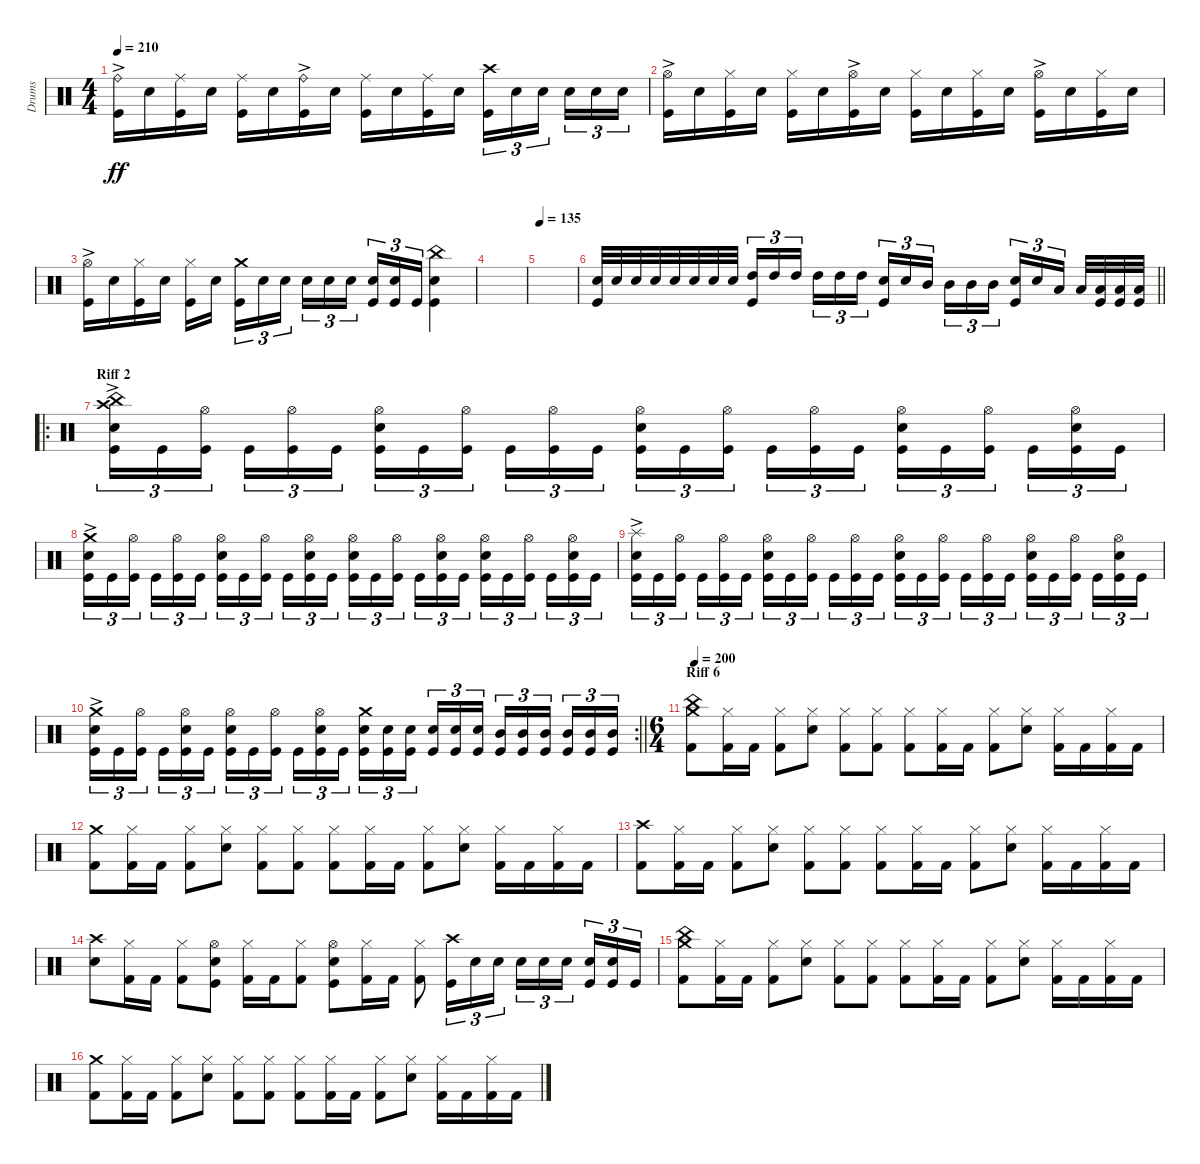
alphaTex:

\track ("Drums" "Drums") {instrument percussion}
\staff {score}
\articulation defaults
\ts (4 4)
\tempo 210
\clef neutral
\ks c
("Ride (bell)"{ac} "Kick (hit)").16{dy ff} "Electric Snare (hit)".16 ("Ride (middle)" "Kick (hit)").16 "Electric Snare (hit)".16 ("Ride (middle)" "Kick (hit)").16 "Electric Snare (hit)".16 ("Ride (bell)"{ac} "Kick (hit)").16 "Electric Snare (hit)".16 ("Ride (middle)" "Kick (hit)").16 "Electric Snare (hit)".16 ("Ride (middle)" "Kick (hit)").16 "Electric Snare (hit)".16 ("Crash high (hit)" "Kick (hit)").16{tu (3 2)} "Electric Snare (hit)".16{tu (3 2)} "Electric Snare (hit)".16{tu (3 2) beam splitsecondary} "Electric Snare (hit)".16{tu (3 2)} "Electric Snare (hit)".16{tu (3 2)} "Electric Snare (hit)".16{tu (3 2)} |
("Hi-Hat (open)"{ac} "Kick (hit)").16 "Electric Snare (hit)".16 ("Hi-Hat (closed)" "Kick (hit)").16 "Electric Snare (hit)".16 ("Hi-Hat (closed)" "Kick (hit)").16 "Electric Snare (hit)".16 ("Hi-Hat (open)"{ac} "Kick (hit)").16 "Electric Snare (hit)".16 ("Hi-Hat (closed)" "Kick (hit)").16 "Electric Snare (hit)".16 ("Hi-Hat (closed)" "Kick (hit)").16 "Electric Snare (hit)".16 ("Hi-Hat (open)"{ac} "Kick (hit)").16 "Electric Snare (hit)".16 ("Hi-Hat (closed)" "Kick (hit)").16 "Electric Snare (hit)".16 |
("Hi-Hat (open)"{ac} "Kick (hit)").16 "Electric Snare (hit)".16 ("Hi-Hat (closed)" "Kick (hit)").16 "Electric Snare (hit)".16 ("Hi-Hat (closed)" "Kick (hit)").16 "Electric Snare (hit)".16{beam splitsecondary} ("Crash medium (hit)" "Kick (hit)").16{tu (3 2)} "Electric Snare (hit)".16{tu (3 2)} "Electric Snare (hit)".16{tu (3 2)} "Electric Snare (hit)".16{tu (3 2)} "Electric Snare (hit)".16{tu (3 2)} "Electric Snare (hit)".16{tu (3 2) beam splitsecondary} ("Electric Snare (hit)" "Kick (hit)").16{tu (3 2)} ("Electric Snare (hit)" "Kick (hit)").16{tu (3 2)} "Kick (hit)".16{tu (3 2)} ("China (hit)" "Electric Snare (hit)" "Kick (hit)").4 |
|
\tempo 135
|
\barLineRight lightlight
("Electric Snare (hit)" "Kick (hit)").32{volume 16} "Electric Snare (hit)".32 "Electric Snare (hit)".32 "Electric Snare (hit)".32 "Electric Snare (hit)".32 "Electric Snare (hit)".32 "Electric Snare (hit)".32 "Electric Snare (hit)".32 ("High Tom (hit)" "Kick (hit)").16{tu (3 2)} "High Tom (hit)".16{tu (3 2)} "High Tom (hit)".16{tu (3 2) beam splitsecondary} "High Tom (hit)".16{tu (3 2)} "High Tom (hit)".16{tu (3 2)} "High Tom (hit)".16{tu (3 2)} ("Electric Snare (hit)" "Kick (hit)").16{tu (3 2)} "Electric Snare (hit)".16{tu (3 2)} "Mid Tom (hit)".16{tu (3 2) beam splitsecondary} "Mid Tom (hit)".16{tu (3 2)} "Mid Tom (hit)".16{tu (3 2)} "Mid Tom (hit)".16{tu (3 2)} ("Electric Snare (hit)" "Kick (hit)").16{tu (3 2)} "Electric Snare (hit)".16{tu (3 2)} "Low Tom (hit)".16{tu (3 2) beam splitsecondary} "Low Tom (hit)".32 ("Low Tom (hit)" "Kick (hit)").32 ("Low Tom (hit)" "Kick (hit)").32 ("Low Tom (hit)" "Kick (hit)").32 |
\ro
\section ("" "Riff 2")
("China (hit)"{ac} "Crash high (hit)" "Electric Snare (hit)" "Kick (hit)").16{tu (3 2) volume 15} "Kick (hit)".16{tu (3 2)} ("Hi-Hat (open)" "Kick (hit)").16{tu (3 2) beam splitsecondary} "Kick (hit)".16{tu (3 2)} ("Hi-Hat (open)" "Kick (hit)").16{tu (3 2)} "Kick (hit)".16{tu (3 2)} ("Hi-Hat (open)" "Electric Snare (hit)" "Kick (hit)").16{tu (3 2)} "Kick (hit)".16{tu (3 2)} ("Hi-Hat (open)" "Kick (hit)").16{tu (3 2) beam splitsecondary} "Kick (hit)".16{tu (3 2)} ("Hi-Hat (open)" "Kick (hit)").16{tu (3 2)} "Kick (hit)".16{tu (3 2)} ("Hi-Hat (open)" "Electric Snare (hit)" "Kick (hit)").16{tu (3 2)} "Kick (hit)".16{tu (3 2)} ("Hi-Hat (open)" "Kick (hit)").16{tu (3 2) beam splitsecondary} "Kick (hit)".16{tu (3 2)} ("Hi-Hat (open)" "Kick (hit)").16{tu (3 2)} "Kick (hit)".16{tu (3 2)} ("Hi-Hat (open)" "Electric Snare (hit)" "Kick (hit)").16{tu (3 2)} "Kick (hit)".16{tu (3 2)} ("Hi-Hat (open)" "Kick (hit)").16{tu (3 2) beam splitsecondary} "Kick (hit)".16{tu (3 2)} ("Hi-Hat (open)" "Electric Snare (hit)" "Kick (hit)").16{tu (3 2)} "Kick (hit)".16{tu (3 2)} |
("Crash medium (hit)"{ac} "Electric Snare (hit)" "Kick (hit)").16{tu (3 2)} "Kick (hit)".16{tu (3 2)} ("Hi-Hat (open)" "Kick (hit)").16{tu (3 2) beam splitsecondary} "Kick (hit)".16{tu (3 2)} ("Hi-Hat (open)" "Kick (hit)").16{tu (3 2)} "Kick (hit)".16{tu (3 2)} ("Hi-Hat (open)" "Electric Snare (hit)" "Kick (hit)").16{tu (3 2)} "Kick (hit)".16{tu (3 2)} ("Hi-Hat (open)" "Kick (hit)").16{tu (3 2) beam splitsecondary} "Kick (hit)".16{tu (3 2)} ("Hi-Hat (open)" "Electric Snare (hit)" "Kick (hit)").16{tu (3 2)} "Kick (hit)".16{tu (3 2)} ("Hi-Hat (open)" "Electric Snare (hit)" "Kick (hit)").16{tu (3 2)} "Kick (hit)".16{tu (3 2)} ("Hi-Hat (open)" "Kick (hit)").16{tu (3 2) beam splitsecondary} "Kick (hit)".16{tu (3 2)} ("Hi-Hat (open)" "Electric Snare (hit)" "Kick (hit)").16{tu (3 2)} "Kick (hit)".16{tu (3 2)} ("Hi-Hat (open)" "Electric Snare (hit)" "Kick (hit)").16{tu (3 2)} "Kick (hit)".16{tu (3 2)} ("Hi-Hat (open)" "Kick (hit)").16{tu (3 2) beam splitsecondary} "Kick (hit)".16{tu (3 2)} ("Hi-Hat (open)" "Electric Snare (hit)" "Kick (hit)").16{tu (3 2)} "Kick (hit)".16{tu (3 2)} |
("Splash (hit)"{ac} "Electric Snare (hit)" "Kick (hit)").16{tu (3 2)} "Kick (hit)".16{tu (3 2)} ("Hi-Hat (open)" "Kick (hit)").16{tu (3 2) beam splitsecondary} "Kick (hit)".16{tu (3 2)} ("Hi-Hat (open)" "Kick (hit)").16{tu (3 2)} "Kick (hit)".16{tu (3 2)} ("Hi-Hat (open)" "Electric Snare (hit)" "Kick (hit)").16{tu (3 2)} "Kick (hit)".16{tu (3 2)} ("Hi-Hat (open)" "Kick (hit)").16{tu (3 2) beam splitsecondary} "Kick (hit)".16{tu (3 2)} ("Hi-Hat (open)" "Kick (hit)").16{tu (3 2)} "Kick (hit)".16{tu (3 2)} ("Hi-Hat (open)" "Electric Snare (hit)" "Kick (hit)").16{tu (3 2)} "Kick (hit)".16{tu (3 2)} ("Hi-Hat (open)" "Kick (hit)").16{tu (3 2) beam splitsecondary} "Kick (hit)".16{tu (3 2)} ("Hi-Hat (open)" "Kick (hit)").16{tu (3 2)} "Kick (hit)".16{tu (3 2)} ("Hi-Hat (open)" "Electric Snare (hit)" "Kick (hit)").16{tu (3 2)} "Kick (hit)".16{tu (3 2)} ("Hi-Hat (open)" "Kick (hit)").16{tu (3 2) beam splitsecondary} "Kick (hit)".16{tu (3 2)} ("Hi-Hat (open)" "Electric Snare (hit)" "Kick (hit)").16{tu (3 2)} "Kick (hit)".16{tu (3 2)} |
\rc 2
\barLineRight lightlight
("Crash medium (hit)"{ac} "Electric Snare (hit)" "Kick (hit)").16{tu (3 2)} "Kick (hit)".16{tu (3 2)} ("Hi-Hat (open)" "Kick (hit)").16{tu (3 2) beam splitsecondary} "Kick (hit)".16{tu (3 2)} ("Hi-Hat (open)" "Electric Snare (hit)" "Kick (hit)").16{tu (3 2)} "Kick (hit)".16{tu (3 2)} ("Hi-Hat (open)" "Electric Snare (hit)" "Kick (hit)").16{tu (3 2)} "Kick (hit)".16{tu (3 2)} ("Hi-Hat (open)" "Kick (hit)").16{tu (3 2) beam splitsecondary} "Kick (hit)".16{tu (3 2)} ("Hi-Hat (open)" "Electric Snare (hit)" "Kick (hit)").16{tu (3 2)} "Kick (hit)".16{tu (3 2)} ("Crash medium (hit)" "Electric Snare (hit)" "Kick (hit)").16{tu (3 2)} ("Electric Snare (hit)" "Kick (hit)").16{tu (3 2)} ("Electric Snare (hit)" "Kick (hit)").16{tu (3 2) beam splitsecondary} ("Electric Snare (hit)" "Kick (hit)").16{tu (3 2)} ("Electric Snare (hit)" "Kick (hit)").16{tu (3 2)} ("Electric Snare (hit)" "Kick (hit)").16{tu (3 2)} ("Mid Tom (hit)" "Kick (hit)").16{tu (3 2)} ("Mid Tom (hit)" "Kick (hit)").16{tu (3 2)} ("Mid Tom (hit)" "Kick (hit)").16{tu (3 2) beam splitsecondary} ("Mid Tom (hit)" "Kick (hit)").16{tu (3 2)} ("Mid Tom (hit)" "Kick (hit)").16{tu (3 2)} ("Mid Tom (hit)" "Kick (hit)").16{tu (3 2)} |
\ts (6 4)
\section ("" "Riff 6")
\tempo 200
("China (hit)" "Crash medium (hit)" "Kick (hit) 2").8 ("Hi-Hat (closed)" "Kick (hit) 2").16 "Kick (hit) 2".16 ("Hi-Hat (closed)" "Kick (hit) 2").8 ("Hi-Hat (closed)" "Electric Snare (hit)").8 ("Hi-Hat (closed)" "Kick (hit) 2").8 ("Hi-Hat (closed)" "Kick (hit) 2").8 ("Hi-Hat (closed)" "Kick (hit) 2").8 ("Hi-Hat (closed)" "Kick (hit) 2").16 "Kick (hit) 2".16 ("Hi-Hat (closed)" "Kick (hit) 2").8 ("Hi-Hat (closed)" "Electric Snare (hit)").8 ("Hi-Hat (closed)" "Kick (hit) 2").16 "Kick (hit) 2".16 ("Hi-Hat (closed)" "Kick (hit) 2").16 "Kick (hit) 2".16 |
("Crash medium (hit)" "Kick (hit) 2").8 ("Hi-Hat (closed)" "Kick (hit) 2").16 "Kick (hit) 2".16 ("Hi-Hat (closed)" "Kick (hit) 2").8 ("Hi-Hat (closed)" "Electric Snare (hit)").8 ("Hi-Hat (closed)" "Kick (hit) 2").8 ("Hi-Hat (closed)" "Kick (hit) 2").8 ("Hi-Hat (closed)" "Kick (hit) 2").8 ("Hi-Hat (closed)" "Kick (hit) 2").16 "Kick (hit) 2".16 ("Hi-Hat (closed)" "Kick (hit) 2").8 ("Hi-Hat (closed)" "Electric Snare (hit)").8 ("Hi-Hat (closed)" "Kick (hit) 2").16 "Kick (hit) 2".16 ("Hi-Hat (closed)" "Kick (hit) 2").16 "Kick (hit) 2".16 |
("Crash high (hit)" "Kick (hit) 2").8 ("Hi-Hat (closed)" "Kick (hit) 2").16 "Kick (hit) 2".16 ("Hi-Hat (closed)" "Kick (hit) 2").8 ("Hi-Hat (closed)" "Electric Snare (hit)").8 ("Hi-Hat (closed)" "Kick (hit) 2").8 ("Hi-Hat (closed)" "Kick (hit) 2").8 ("Hi-Hat (closed)" "Kick (hit) 2").8 ("Hi-Hat (closed)" "Kick (hit) 2").16 "Kick (hit) 2".16 ("Hi-Hat (closed)" "Kick (hit) 2").8 ("Hi-Hat (closed)" "Electric Snare (hit)").8 ("Hi-Hat (closed)" "Kick (hit) 2").16 "Kick (hit) 2".16 ("Hi-Hat (closed)" "Kick (hit) 2").16 "Kick (hit) 2".16 |
("Crash high (hit)" "Electric Snare (hit)").8 ("Hi-Hat (closed)" "Kick (hit) 2").16 "Kick (hit) 2".16 ("Hi-Hat (closed)" "Kick (hit) 2").8 ("Hi-Hat (open)" "Electric Snare (hit)" "Kick (hit)").8 ("Hi-Hat (closed)" "Kick (hit) 2").16 "Kick (hit) 2".16 ("Hi-Hat (closed)" "Kick (hit) 2").8 ("Hi-Hat (open)" "Electric Snare (hit)" "Kick (hit)").8 ("Hi-Hat (closed)" "Kick (hit) 2").16 "Kick (hit) 2".16 ("Hi-Hat (closed)" "Kick (hit) 2").8 ("Crash high (hit)" "Kick (hit)").16{tu (3 2)} "Electric Snare (hit)".16{tu (3 2)} "Electric Snare (hit)".16{tu (3 2) beam splitsecondary} "Electric Snare (hit)".16{tu (3 2)} "Electric Snare (hit)".16{tu (3 2)} "Electric Snare (hit)".16{tu (3 2) beam splitsecondary} ("Electric Snare (hit)" "Kick (hit)").16{tu (3 2)} ("Electric Snare (hit)" "Kick (hit)").16{tu (3 2)} "Kick (hit)".16{tu (3 2)} |
("China (hit)" "Crash medium (hit)" "Kick (hit) 2").8 ("Hi-Hat (closed)" "Kick (hit) 2").16 "Kick (hit) 2".16 ("Hi-Hat (closed)" "Kick (hit) 2").8 ("Hi-Hat (closed)" "Electric Snare (hit)").8 ("Hi-Hat (closed)" "Kick (hit) 2").8 ("Hi-Hat (closed)" "Kick (hit) 2").8 ("Hi-Hat (closed)" "Kick (hit) 2").8 ("Hi-Hat (closed)" "Kick (hit) 2").16 "Kick (hit) 2".16 ("Hi-Hat (closed)" "Kick (hit) 2").8 ("Hi-Hat (closed)" "Electric Snare (hit)").8 ("Hi-Hat (closed)" "Kick (hit) 2").16 "Kick (hit) 2".16 ("Hi-Hat (closed)" "Kick (hit) 2").16 "Kick (hit) 2".16 |
("Crash medium (hit)" "Kick (hit) 2").8 ("Hi-Hat (closed)" "Kick (hit) 2").16 "Kick (hit) 2".16 ("Hi-Hat (closed)" "Kick (hit) 2").8 ("Hi-Hat (closed)" "Electric Snare (hit)").8 ("Hi-Hat (closed)" "Kick (hit) 2").8 ("Hi-Hat (closed)" "Kick (hit) 2").8 ("Hi-Hat (closed)" "Kick (hit) 2").8 ("Hi-Hat (closed)" "Kick (hit) 2").16 "Kick (hit) 2".16 ("Hi-Hat (closed)" "Kick (hit) 2").8 ("Hi-Hat (closed)" "Electric Snare (hit)").8 ("Hi-Hat (closed)" "Kick (hit) 2").16 "Kick (hit) 2".16 ("Hi-Hat (closed)" "Kick (hit) 2").16 "Kick (hit) 2".16
